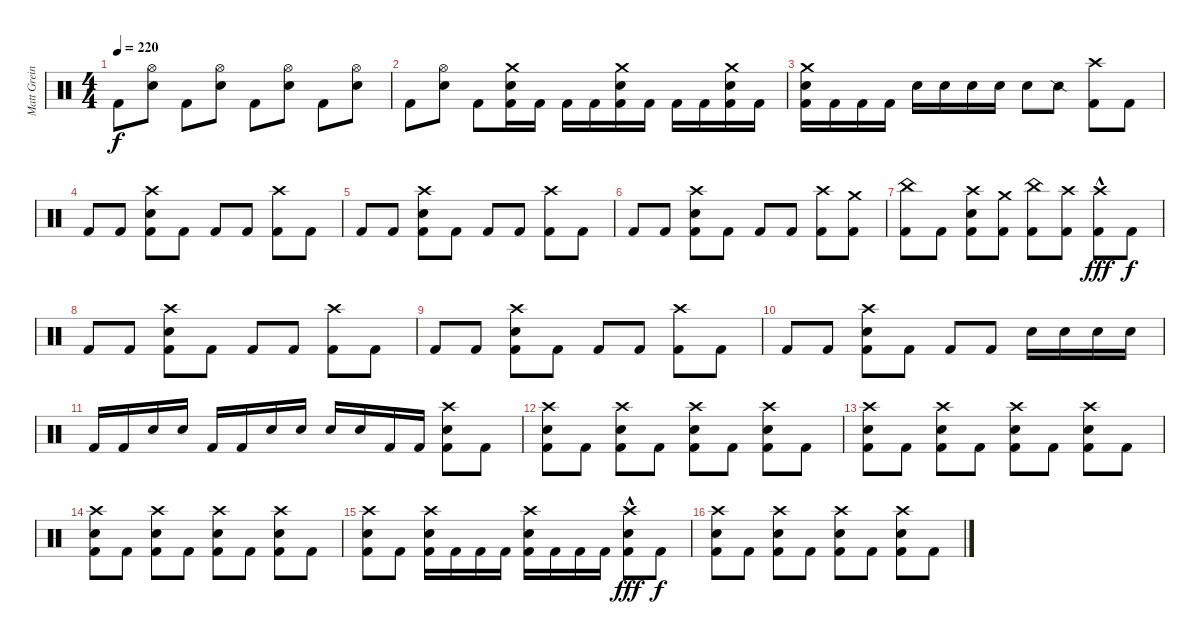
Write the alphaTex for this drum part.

\track ("Matt Greiner (Drums)" "Matt Grein") {instrument percussion}
\staff {score}
\articulation defaults
\ts (4 4)
\tempo 220
\clef neutral
\ks c "Kick (hit) 2".8{dy f}
("Hi-Hat (open)" "Electric Snare (hit)").8 "Kick (hit) 2".8 ("Hi-Hat (open)" "Electric Snare (hit)").8 "Kick (hit) 2".8 ("Hi-Hat (open)" "Electric Snare (hit)").8 "Kick (hit) 2".8 ("Hi-Hat (open)" "Electric Snare (hit)").8 |
"Kick (hit) 2".8 ("Hi-Hat (open)" "Electric Snare (hit)").8 "Kick (hit) 2".8 ("Crash medium (hit)" "Electric Snare (hit)" "Kick (hit) 2").16 "Kick (hit) 2".16 "Kick (hit) 2".16 "Kick (hit) 2".16 ("Crash medium (hit)" "Electric Snare (hit)" "Kick (hit) 2").16 "Kick (hit) 2".16 "Kick (hit) 2".16 "Kick (hit) 2".16 ("Crash medium (hit)" "Electric Snare (hit)" "Kick (hit) 2").16 "Kick (hit) 2".16 |
("Crash medium (hit)" "Electric Snare (hit)" "Kick (hit) 2").16 "Kick (hit) 2".16 "Kick (hit) 2".16 "Kick (hit) 2".16 "Electric Snare (hit)".16 "Electric Snare (hit)".16 "Electric Snare (hit)".16 "Electric Snare (hit)".16 "Electric Snare (hit)".8 "Snare (side stick) 2".8 ("Crash high (hit)" "Kick (hit) 2").8 "Kick (hit) 2".8 |
"Kick (hit) 2".8 "Kick (hit) 2".8 ("Crash high (hit)" "Electric Snare (hit)" "Kick (hit) 2").8 "Kick (hit) 2".8 "Kick (hit) 2".8 "Kick (hit) 2".8 ("Crash high (hit)" "Kick (hit) 2").8 "Kick (hit) 2".8 |
"Kick (hit) 2".8 "Kick (hit) 2".8 ("Crash high (hit)" "Electric Snare (hit)" "Kick (hit) 2").8 "Kick (hit) 2".8 "Kick (hit) 2".8 "Kick (hit) 2".8 ("Crash high (hit)" "Kick (hit) 2").8 "Kick (hit) 2".8 |
"Kick (hit) 2".8 "Kick (hit) 2".8 ("Crash high (hit)" "Electric Snare (hit)" "Kick (hit) 2").8 "Kick (hit) 2".8 "Kick (hit) 2".8 "Kick (hit) 2".8 ("Crash high (hit)" "Kick (hit) 2").8 ("Crash medium (hit)" "Kick (hit) 2").8 |
("China (hit)" "Kick (hit) 2").8 "Kick (hit) 2".8 ("Crash high (hit)" "Electric Snare (hit)" "Kick (hit) 2").8 ("Crash medium (hit)" "Kick (hit) 2").8 ("China (hit)" "Kick (hit) 2").8 ("Crash high (hit)" "Kick (hit) 2").8 ("Crash high (hit)"{hac} "Kick (hit) 2").8{dy fff} "Kick (hit) 2".8{dy f} |
"Kick (hit) 2".8 "Kick (hit) 2".8 ("Crash high (hit)" "Electric Snare (hit)" "Kick (hit) 2").8 "Kick (hit) 2".8 "Kick (hit) 2".8 "Kick (hit) 2".8 ("Crash high (hit)" "Kick (hit) 2").8 "Kick (hit) 2".8 |
"Kick (hit) 2".8 "Kick (hit) 2".8 ("Crash high (hit)" "Electric Snare (hit)" "Kick (hit) 2").8 "Kick (hit) 2".8 "Kick (hit) 2".8 "Kick (hit) 2".8 ("Crash high (hit)" "Kick (hit) 2").8 "Kick (hit) 2".8 |
"Kick (hit) 2".8 "Kick (hit) 2".8 ("Crash high (hit)" "Electric Snare (hit)" "Kick (hit) 2").8 "Kick (hit) 2".8 "Kick (hit) 2".8 "Kick (hit) 2".8 "Electric Snare (hit)".16 "Electric Snare (hit)".16 "Electric Snare (hit)".16 "Electric Snare (hit)".16 |
"Kick (hit) 2".16 "Kick (hit) 2".16 "Electric Snare (hit)".16 "Electric Snare (hit)".16 "Kick (hit) 2".16 "Kick (hit) 2".16 "Electric Snare (hit)".16 "Electric Snare (hit)".16 "Electric Snare (hit)".16 "Electric Snare (hit)".16 "Kick (hit) 2".16 "Kick (hit) 2".16 ("Crash high (hit)" "Electric Snare (hit)" "Kick (hit) 2").8 "Kick (hit) 2".8 |
("Crash high (hit)" "Electric Snare (hit)" "Kick (hit) 2").8 "Kick (hit) 2".8 ("Crash high (hit)" "Electric Snare (hit)" "Kick (hit) 2").8 "Kick (hit) 2".8 ("Crash high (hit)" "Electric Snare (hit)" "Kick (hit) 2").8 "Kick (hit) 2".8 ("Crash high (hit)" "Electric Snare (hit)" "Kick (hit) 2").8 "Kick (hit) 2".8 |
("Crash high (hit)" "Electric Snare (hit)" "Kick (hit) 2").8 "Kick (hit) 2".8 ("Crash high (hit)" "Electric Snare (hit)" "Kick (hit) 2").8 "Kick (hit) 2".8 ("Crash high (hit)" "Electric Snare (hit)" "Kick (hit) 2").8 "Kick (hit) 2".8 ("Crash high (hit)" "Electric Snare (hit)" "Kick (hit) 2").8 "Kick (hit) 2".8 |
("Crash high (hit)" "Electric Snare (hit)" "Kick (hit) 2").8 "Kick (hit) 2".8 ("Crash high (hit)" "Electric Snare (hit)" "Kick (hit) 2").8 "Kick (hit) 2".8 ("Crash high (hit)" "Electric Snare (hit)" "Kick (hit) 2").8 "Kick (hit) 2".8 ("Crash high (hit)" "Electric Snare (hit)" "Kick (hit) 2").8 "Kick (hit) 2".8 |
("Crash high (hit)" "Electric Snare (hit)" "Kick (hit) 2").8 "Kick (hit) 2".8 ("Crash high (hit)" "Electric Snare (hit)" "Kick (hit) 2").16 "Kick (hit) 2".16 "Kick (hit) 2".16 "Kick (hit) 2".16 ("Crash high (hit)" "Electric Snare (hit)" "Kick (hit) 2").16 "Kick (hit) 2".16 "Kick (hit) 2".16 "Kick (hit) 2".16 ("Crash high (hit)"{hac} "Electric Snare (hit)" "Kick (hit) 2").8{dy fff} "Kick (hit) 2".8{dy f} |
("Crash high (hit)" "Electric Snare (hit)" "Kick (hit) 2").8 "Kick (hit) 2".8 ("Crash high (hit)" "Electric Snare (hit)" "Kick (hit) 2").8 "Kick (hit) 2".8 ("Crash high (hit)" "Electric Snare (hit)" "Kick (hit) 2").8 "Kick (hit) 2".8 ("Crash high (hit)" "Electric Snare (hit)" "Kick (hit) 2").8 "Kick (hit) 2".8
